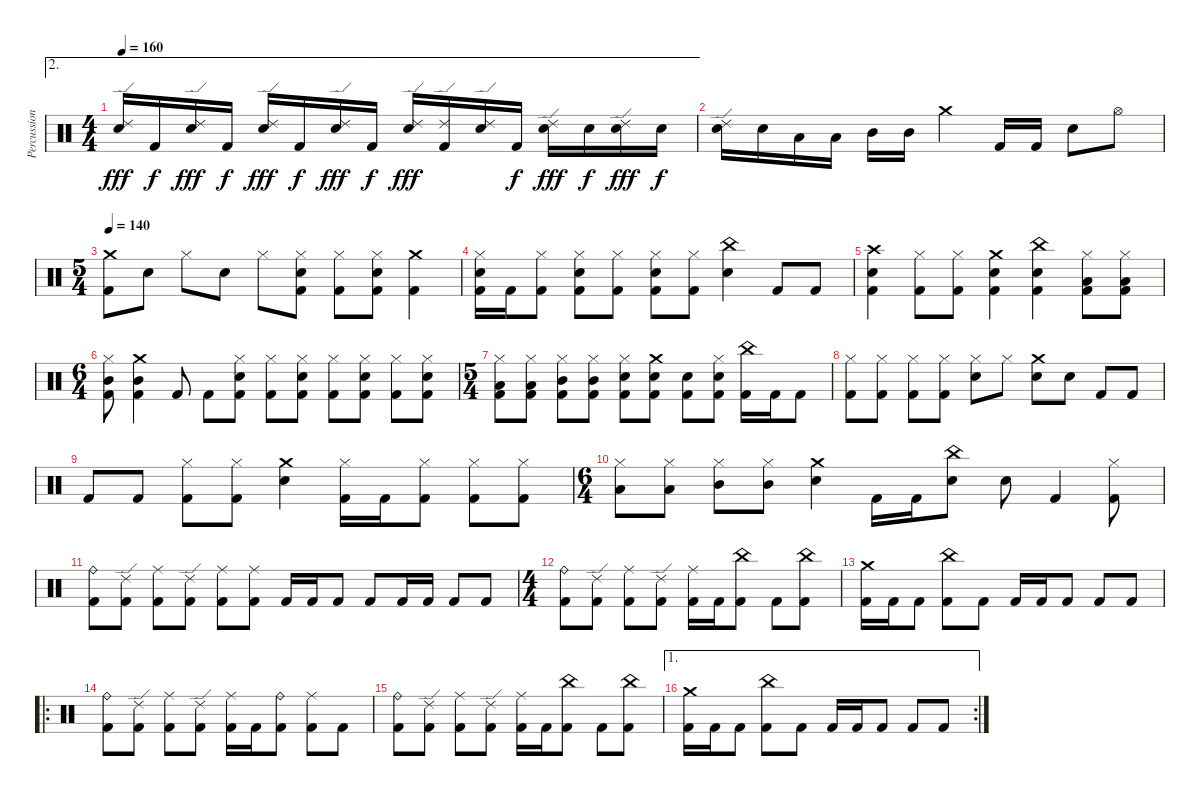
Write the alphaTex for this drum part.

\track ("Percussion" "Percussion") {instrument percussion}
\staff {score}
\articulation defaults
\ae 2
\ts (4 4)
\tempo 160
\clef neutral
\ks c
("Ride (edge) 2" "Electric Snare (hit)").16{dy fff} "Kick (hit) 2".16{dy f} ("Ride (edge) 2" "Electric Snare (hit)").16{dy fff} "Kick (hit) 2".16{dy f} ("Ride (edge) 2" "Electric Snare (hit)").16{dy fff} "Kick (hit) 2".16{dy f} ("Ride (edge) 2" "Electric Snare (hit)").16{dy fff} "Kick (hit) 2".16{dy f} ("Ride (edge) 2" "Electric Snare (hit)").16{dy fff} ("Ride (edge) 2" "Kick (hit) 2").16 ("Ride (edge) 2" "Electric Snare (hit)").16 "Kick (hit) 2".16{dy f} ("Ride (edge) 2" "Electric Snare (hit)").16{dy fff} "Electric Snare (hit)".16{dy f} ("Ride (edge) 2" "Electric Snare (hit)").16{dy fff} "Electric Snare (hit)".16{dy f} |
("Ride (edge) 2" "Electric Snare (hit)").16 "Electric Snare (hit)".16 "Low Tom (hit)".16 "Low Tom (hit)".16 "Mid Tom (hit)".16 "Mid Tom (hit)".16 "Crash medium (hit)".4 "Kick (hit) 2".16 "Kick (hit) 2".16 "Electric Snare (hit)".8 "Hi-Hat (open)".8 |
\ts (5 4)
\tempo 140
("Crash medium (hit)" "Kick (hit) 2").8 "Electric Snare (hit)".8 "Hi-Hat (closed)".8 "Electric Snare (hit)".8 "Hi-Hat (closed)".8 ("Hi-Hat (closed)" "Electric Snare (hit)" "Kick (hit) 2").8 ("Hi-Hat (closed)" "Kick (hit) 2").8 ("Hi-Hat (closed)" "Electric Snare (hit)" "Kick (hit) 2").8 ("Crash medium (hit)" "Kick (hit) 2").4 |
("Hi-Hat (closed)" "Electric Snare (hit)" "Kick (hit) 2").16 "Kick (hit) 2".16 ("Hi-Hat (closed)" "Kick (hit) 2").8 ("Hi-Hat (closed)" "Electric Snare (hit)" "Kick (hit) 2").8 ("Hi-Hat (closed)" "Kick (hit) 2").8 ("Hi-Hat (closed)" "Electric Snare (hit)" "Kick (hit) 2").8 ("Hi-Hat (closed)" "Kick (hit) 2").8 ("China (hit)" "Electric Snare (hit)").4 "Kick (hit) 2".8 "Kick (hit) 2".8 |
("Crash high (hit)" "Electric Snare (hit)" "Kick (hit) 2").4 ("Hi-Hat (closed)" "Kick (hit) 2").8 ("Hi-Hat (closed)" "Kick (hit) 2").8 ("Crash medium (hit)" "Electric Snare (hit)" "Kick (hit) 2").4 ("China (hit)" "Electric Snare (hit)" "Kick (hit) 2").4 ("Hi-Hat (closed)" "Low Tom (hit)" "Kick (hit) 2").8 ("Hi-Hat (closed)" "Low Tom (hit)" "Kick (hit) 2").8 |
\ts (6 4)
("Hi-Hat (closed)" "Mid Tom (hit)" "Kick (hit) 2").8 ("Crash medium (hit)" "Mid Tom (hit)" "Kick (hit) 2").4 "Kick (hit) 2".8 "Kick (hit) 2".8 ("Hi-Hat (closed)" "Electric Snare (hit)" "Kick (hit) 2").8 ("Hi-Hat (closed)" "Kick (hit) 2").8 ("Hi-Hat (closed)" "Electric Snare (hit)" "Kick (hit) 2").8 ("Hi-Hat (closed)" "Kick (hit) 2").8 ("Hi-Hat (closed)" "Electric Snare (hit)" "Kick (hit) 2").8 ("Hi-Hat (closed)" "Kick (hit) 2").8 ("Hi-Hat (closed)" "Electric Snare (hit)" "Kick (hit) 2").8 |
\ts (5 4)
("Hi-Hat (closed)" "Low Tom (hit)" "Kick (hit) 2").8 ("Hi-Hat (closed)" "Low Tom (hit)" "Kick (hit) 2").8 ("Hi-Hat (closed)" "Mid Tom (hit)" "Kick (hit) 2").8 ("Hi-Hat (closed)" "Mid Tom (hit)" "Kick (hit) 2").8 ("Hi-Hat (closed)" "Electric Snare (hit)" "Kick (hit) 2").8 ("Crash medium (hit)" "Electric Snare (hit)" "Kick (hit) 2").8 ("Electric Snare (hit)" "Kick (hit) 2").8 ("Hi-Hat (closed)" "Electric Snare (hit)" "Kick (hit) 2").8 ("China (hit)" "Kick (hit) 2").16 "Kick (hit) 2".16 "Kick (hit) 2".8 |
("Hi-Hat (closed)" "Kick (hit) 2").8 ("Hi-Hat (closed)" "Kick (hit) 2").8 ("Hi-Hat (closed)" "Kick (hit) 2").8 ("Hi-Hat (closed)" "Kick (hit) 2").8 ("Hi-Hat (closed)" "Electric Snare (hit)").8 "Hi-Hat (closed)".8 ("Crash medium (hit)" "Electric Snare (hit)").8 "Electric Snare (hit)".8 "Kick (hit) 2".8 "Kick (hit) 2".8 |
"Kick (hit) 2".8 "Kick (hit) 2".8 ("Hi-Hat (closed)" "Kick (hit) 2").8 ("Hi-Hat (closed)" "Kick (hit) 2").8 ("Crash medium (hit)" "Electric Snare (hit)").4 ("Hi-Hat (closed)" "Kick (hit) 2").16 "Kick (hit) 2".16 ("Hi-Hat (closed)" "Kick (hit) 2").8 ("Hi-Hat (closed)" "Kick (hit) 2").8 ("Hi-Hat (closed)" "Kick (hit) 2").8 |
\ts (6 4)
("Hi-Hat (closed)" "Low Tom (hit)").8 ("Hi-Hat (closed)" "Low Tom (hit)").8 ("Hi-Hat (closed)" "Mid Tom (hit)").8 ("Hi-Hat (closed)" "Mid Tom (hit)").8 ("Crash medium (hit)" "Electric Snare (hit)").4 "Kick (hit) 2".16 "Kick (hit) 2".16 ("China (hit)" "Electric Snare (hit)").8 "Electric Snare (hit)".8 "Kick (hit) 2".4 ("Hi-Hat (closed)" "Kick (hit) 2").8 |
("Ride (bell)" "Kick (hit) 2").8 ("Ride (edge) 2" "Kick (hit) 2").8 ("Ride (middle)" "Kick (hit) 2").8 ("Ride (edge) 2" "Kick (hit) 2").8 ("Ride (middle)" "Kick (hit) 2").8 ("Ride (middle)" "Kick (hit) 2").8 "Kick (hit) 2".16 "Kick (hit) 2".16 "Kick (hit) 2".8 "Kick (hit) 2".8 "Kick (hit) 2".16 "Kick (hit) 2".16 "Kick (hit) 2".8 "Kick (hit) 2".8 |
\ts (4 4)
("Ride (bell)" "Kick (hit) 2").8 ("Ride (edge) 2" "Kick (hit) 2").8 ("Ride (middle)" "Kick (hit) 2").8 ("Ride (edge) 2" "Kick (hit) 2").8 ("Ride (middle)" "Kick (hit) 2").16 "Kick (hit) 2".16 ("China (hit)" "Kick (hit) 2").8 "Kick (hit) 2".8 ("China (hit)" "Kick (hit) 2").8 |
("Crash medium (hit)" "Kick (hit) 2").16 "Kick (hit) 2".16 "Kick (hit) 2".8 ("China (hit)" "Kick (hit) 2").8 "Kick (hit) 2".8 "Kick (hit) 2".16 "Kick (hit) 2".16 "Kick (hit) 2".8 "Kick (hit) 2".8 "Kick (hit) 2".8 |
\ro
("Ride (bell)" "Kick (hit) 2").8 ("Ride (edge) 2" "Kick (hit) 2").8 ("Ride (middle)" "Kick (hit) 2").8 ("Ride (edge) 2" "Kick (hit) 2").8 ("Ride (middle)" "Kick (hit) 2").16 "Kick (hit) 2".16 ("Ride (bell)" "Kick (hit) 2").8 ("Ride (middle)" "Kick (hit) 2").8 "Kick (hit) 2".8 |
("Ride (bell)" "Kick (hit) 2").8 ("Ride (edge) 2" "Kick (hit) 2").8 ("Ride (middle)" "Kick (hit) 2").8 ("Ride (edge) 2" "Kick (hit) 2").8 ("Ride (middle)" "Kick (hit) 2").16 "Kick (hit) 2".16 ("China (hit)" "Kick (hit) 2").8 "Kick (hit) 2".8 ("China (hit)" "Kick (hit) 2").8 |
\ae 1
\rc 2
("Crash medium (hit)" "Kick (hit) 2").16 "Kick (hit) 2".16 "Kick (hit) 2".8 ("China (hit)" "Kick (hit) 2").8 "Kick (hit) 2".8 "Kick (hit) 2".16 "Kick (hit) 2".16 "Kick (hit) 2".8 "Kick (hit) 2".8 "Kick (hit) 2".8
